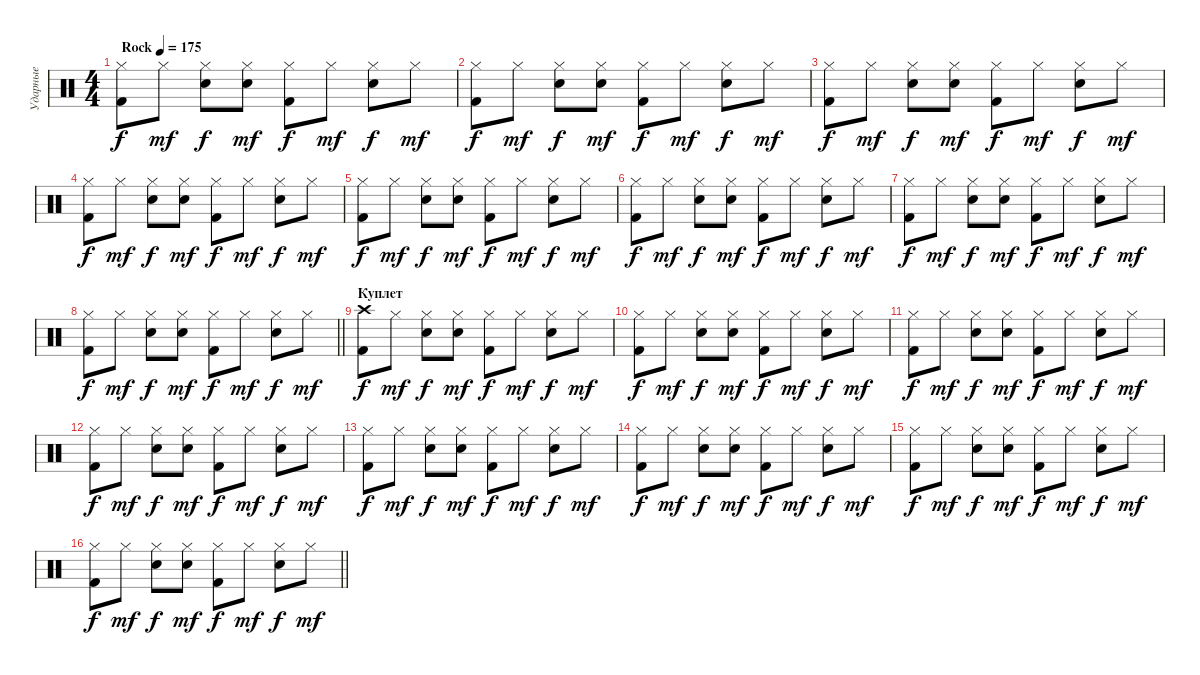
\track ("Ударные" "Ударные") {instrument percussion}
\staff {score}
\articulation defaults
\ts (4 4)
\tempo (175 "Rock")
\clef neutral
\ks c
("Hi-Hat (closed)" "Kick (hit) 2").8{dy f} "Hi-Hat (closed)".8{dy mf} ("Hi-Hat (closed)" "Snare (hit) 2").8{dy f} ("Hi-Hat (closed)" "Snare (hit) 2").8{dy mf} ("Hi-Hat (closed)" "Kick (hit) 2").8{dy f} "Hi-Hat (closed)".8{dy mf} ("Hi-Hat (closed)" "Snare (hit) 2").8{dy f} "Hi-Hat (closed)".8{dy mf} |
("Hi-Hat (closed)" "Kick (hit) 2").8{dy f} "Hi-Hat (closed)".8{dy mf} ("Hi-Hat (closed)" "Snare (hit) 2").8{dy f} ("Hi-Hat (closed)" "Snare (hit) 2").8{dy mf} ("Hi-Hat (closed)" "Kick (hit) 2").8{dy f} "Hi-Hat (closed)".8{dy mf} ("Hi-Hat (closed)" "Snare (hit) 2").8{dy f} "Hi-Hat (closed)".8{dy mf} |
("Hi-Hat (closed)" "Kick (hit) 2").8{dy f} "Hi-Hat (closed)".8{dy mf} ("Hi-Hat (closed)" "Snare (hit) 2").8{dy f} ("Hi-Hat (closed)" "Snare (hit) 2").8{dy mf} ("Hi-Hat (closed)" "Kick (hit) 2").8{dy f} "Hi-Hat (closed)".8{dy mf} ("Hi-Hat (closed)" "Snare (hit) 2").8{dy f} "Hi-Hat (closed)".8{dy mf} |
("Hi-Hat (closed)" "Kick (hit) 2").8{dy f} "Hi-Hat (closed)".8{dy mf} ("Hi-Hat (closed)" "Snare (hit) 2").8{dy f} ("Hi-Hat (closed)" "Snare (hit) 2").8{dy mf} ("Hi-Hat (closed)" "Kick (hit) 2").8{dy f} "Hi-Hat (closed)".8{dy mf} ("Hi-Hat (closed)" "Snare (hit) 2").8{dy f} "Hi-Hat (closed)".8{dy mf} |
("Hi-Hat (closed)" "Kick (hit) 2").8{dy f} "Hi-Hat (closed)".8{dy mf} ("Hi-Hat (closed)" "Snare (hit) 2").8{dy f} ("Hi-Hat (closed)" "Snare (hit) 2").8{dy mf} ("Hi-Hat (closed)" "Kick (hit) 2").8{dy f} "Hi-Hat (closed)".8{dy mf} ("Hi-Hat (closed)" "Snare (hit) 2").8{dy f} "Hi-Hat (closed)".8{dy mf} |
("Hi-Hat (closed)" "Kick (hit) 2").8{dy f} "Hi-Hat (closed)".8{dy mf} ("Hi-Hat (closed)" "Snare (hit) 2").8{dy f} ("Hi-Hat (closed)" "Snare (hit) 2").8{dy mf} ("Hi-Hat (closed)" "Kick (hit) 2").8{dy f} "Hi-Hat (closed)".8{dy mf} ("Hi-Hat (closed)" "Snare (hit) 2").8{dy f} "Hi-Hat (closed)".8{dy mf} |
("Hi-Hat (closed)" "Kick (hit) 2").8{dy f} "Hi-Hat (closed)".8{dy mf} ("Hi-Hat (closed)" "Snare (hit) 2").8{dy f} ("Hi-Hat (closed)" "Snare (hit) 2").8{dy mf} ("Hi-Hat (closed)" "Kick (hit) 2").8{dy f} "Hi-Hat (closed)".8{dy mf} ("Hi-Hat (closed)" "Snare (hit) 2").8{dy f} "Hi-Hat (closed)".8{dy mf} |
\barLineRight lightlight
("Hi-Hat (closed)" "Kick (hit) 2").8{dy f} "Hi-Hat (closed)".8{dy mf} ("Hi-Hat (closed)" "Snare (hit) 2").8{dy f} ("Hi-Hat (closed)" "Snare (hit) 2").8{dy mf} ("Hi-Hat (closed)" "Kick (hit) 2").8{dy f} "Hi-Hat (closed)".8{dy mf} ("Hi-Hat (closed)" "Snare (hit) 2").8{dy f} "Hi-Hat (closed)".8{dy mf} |
\section ("" "Куплет")
("Crash high (hit)" "Kick (hit) 2").8{dy f} "Hi-Hat (closed)".8{dy mf} ("Hi-Hat (closed)" "Snare (hit) 2").8{dy f} ("Hi-Hat (closed)" "Snare (hit) 2").8{dy mf} ("Hi-Hat (closed)" "Kick (hit) 2").8{dy f} "Hi-Hat (closed)".8{dy mf} ("Hi-Hat (closed)" "Snare (hit) 2").8{dy f} "Hi-Hat (closed)".8{dy mf} |
("Hi-Hat (closed)" "Kick (hit) 2").8{dy f} "Hi-Hat (closed)".8{dy mf} ("Hi-Hat (closed)" "Snare (hit) 2").8{dy f} ("Hi-Hat (closed)" "Snare (hit) 2").8{dy mf} ("Hi-Hat (closed)" "Kick (hit) 2").8{dy f} "Hi-Hat (closed)".8{dy mf} ("Hi-Hat (closed)" "Snare (hit) 2").8{dy f} "Hi-Hat (closed)".8{dy mf} |
("Hi-Hat (closed)" "Kick (hit) 2").8{dy f} "Hi-Hat (closed)".8{dy mf} ("Hi-Hat (closed)" "Snare (hit) 2").8{dy f} ("Hi-Hat (closed)" "Snare (hit) 2").8{dy mf} ("Hi-Hat (closed)" "Kick (hit) 2").8{dy f} "Hi-Hat (closed)".8{dy mf} ("Hi-Hat (closed)" "Snare (hit) 2").8{dy f} "Hi-Hat (closed)".8{dy mf} |
("Hi-Hat (closed)" "Kick (hit) 2").8{dy f} "Hi-Hat (closed)".8{dy mf} ("Hi-Hat (closed)" "Snare (hit) 2").8{dy f} ("Hi-Hat (closed)" "Snare (hit) 2").8{dy mf} ("Hi-Hat (closed)" "Kick (hit) 2").8{dy f} "Hi-Hat (closed)".8{dy mf} ("Hi-Hat (closed)" "Snare (hit) 2").8{dy f} "Hi-Hat (closed)".8{dy mf} |
("Hi-Hat (closed)" "Kick (hit) 2").8{dy f} "Hi-Hat (closed)".8{dy mf} ("Hi-Hat (closed)" "Snare (hit) 2").8{dy f} ("Hi-Hat (closed)" "Snare (hit) 2").8{dy mf} ("Hi-Hat (closed)" "Kick (hit) 2").8{dy f} "Hi-Hat (closed)".8{dy mf} ("Hi-Hat (closed)" "Snare (hit) 2").8{dy f} "Hi-Hat (closed)".8{dy mf} |
("Hi-Hat (closed)" "Kick (hit) 2").8{dy f} "Hi-Hat (closed)".8{dy mf} ("Hi-Hat (closed)" "Snare (hit) 2").8{dy f} ("Hi-Hat (closed)" "Snare (hit) 2").8{dy mf} ("Hi-Hat (closed)" "Kick (hit) 2").8{dy f} "Hi-Hat (closed)".8{dy mf} ("Hi-Hat (closed)" "Snare (hit) 2").8{dy f} "Hi-Hat (closed)".8{dy mf} |
("Hi-Hat (closed)" "Kick (hit) 2").8{dy f} "Hi-Hat (closed)".8{dy mf} ("Hi-Hat (closed)" "Snare (hit) 2").8{dy f} ("Hi-Hat (closed)" "Snare (hit) 2").8{dy mf} ("Hi-Hat (closed)" "Kick (hit) 2").8{dy f} "Hi-Hat (closed)".8{dy mf} ("Hi-Hat (closed)" "Snare (hit) 2").8{dy f} "Hi-Hat (closed)".8{dy mf} |
\barLineRight lightlight
("Hi-Hat (closed)" "Kick (hit) 2").8{dy f} "Hi-Hat (closed)".8{dy mf} ("Hi-Hat (closed)" "Snare (hit) 2").8{dy f} ("Hi-Hat (closed)" "Snare (hit) 2").8{dy mf} ("Hi-Hat (closed)" "Kick (hit) 2").8{dy f} "Hi-Hat (closed)".8{dy mf} ("Hi-Hat (closed)" "Snare (hit) 2").8{dy f} "Hi-Hat (closed)".8{dy mf}
